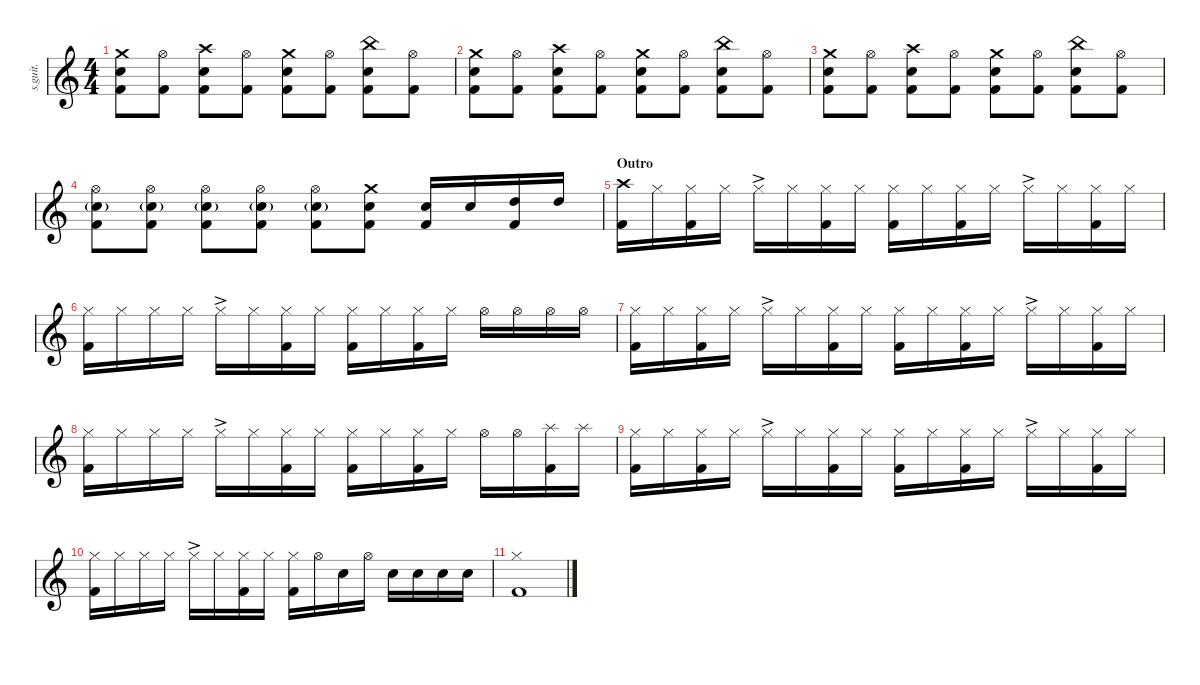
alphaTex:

\defaultSystemsLayout 4
\hideDynamics
\bracketExtendMode nobrackets
\track ("Feargal Lawler (Drums)" "s.guit.") {instrument percussion}
\staff {score}
\articulation defaults
\ts (4 4)
\tempo (82 hide)
\clef g2
\ks c
("Crash medium (hit)" "Snare (hit) 2" "Kick (hit) 2").8{lyrics (0 "") lyrics (1 "") lyrics (2 "") lyrics (3 "") lyrics (4 "") dy ff} ("Hi-Hat (open)" "Kick (hit) 2").8{lyrics (0 "") lyrics (1 "") lyrics (2 "") lyrics (3 "") lyrics (4 "")} ("Crash high (hit)" "Snare (hit) 2" "Kick (hit) 2").8{lyrics (0 "") lyrics (1 "") lyrics (2 "") lyrics (3 "") lyrics (4 "")} ("Hi-Hat (open)" "Kick (hit) 2").8{lyrics (0 "") lyrics (1 "") lyrics (2 "") lyrics (3 "") lyrics (4 "")} ("Crash medium (hit)" "Snare (hit) 2" "Kick (hit) 2").8{lyrics (0 "") lyrics (1 "") lyrics (2 "") lyrics (3 "") lyrics (4 "")} ("Hi-Hat (open)" "Kick (hit) 2").8{lyrics (0 "") lyrics (1 "") lyrics (2 "") lyrics (3 "") lyrics (4 "")} ("China (hit)" "Snare (hit) 2" "Kick (hit) 2").8{lyrics (0 "") lyrics (1 "") lyrics (2 "") lyrics (3 "") lyrics (4 "")} ("Hi-Hat (open)" "Kick (hit) 2").8{lyrics (0 "") lyrics (1 "") lyrics (2 "") lyrics (3 "") lyrics (4 "")} |
("Crash medium (hit)" "Snare (hit) 2" "Kick (hit) 2").8{lyrics (0 "") lyrics (1 "") lyrics (2 "") lyrics (3 "") lyrics (4 "")} ("Hi-Hat (open)" "Kick (hit) 2").8{lyrics (0 "") lyrics (1 "") lyrics (2 "") lyrics (3 "") lyrics (4 "")} ("Crash high (hit)" "Snare (hit) 2" "Kick (hit) 2").8{lyrics (0 "") lyrics (1 "") lyrics (2 "") lyrics (3 "") lyrics (4 "")} ("Hi-Hat (open)" "Kick (hit) 2").8{lyrics (0 "") lyrics (1 "") lyrics (2 "") lyrics (3 "") lyrics (4 "")} ("Crash medium (hit)" "Snare (hit) 2" "Kick (hit) 2").8{lyrics (0 "") lyrics (1 "") lyrics (2 "") lyrics (3 "") lyrics (4 "")} ("Hi-Hat (open)" "Kick (hit) 2").8{lyrics (0 "") lyrics (1 "") lyrics (2 "") lyrics (3 "") lyrics (4 "")} ("China (hit)" "Snare (hit) 2" "Kick (hit) 2").8{lyrics (0 "") lyrics (1 "") lyrics (2 "") lyrics (3 "") lyrics (4 "")} ("Hi-Hat (open)" "Kick (hit) 2").8{lyrics (0 "") lyrics (1 "") lyrics (2 "") lyrics (3 "") lyrics (4 "")} |
("Crash medium (hit)" "Snare (hit) 2" "Kick (hit) 2").8{lyrics (0 "") lyrics (1 "") lyrics (2 "") lyrics (3 "") lyrics (4 "")} ("Hi-Hat (open)" "Kick (hit) 2").8{lyrics (0 "") lyrics (1 "") lyrics (2 "") lyrics (3 "") lyrics (4 "")} ("Crash high (hit)" "Snare (hit) 2" "Kick (hit) 2").8{lyrics (0 "") lyrics (1 "") lyrics (2 "") lyrics (3 "") lyrics (4 "")} ("Hi-Hat (open)" "Kick (hit) 2").8{lyrics (0 "") lyrics (1 "") lyrics (2 "") lyrics (3 "") lyrics (4 "")} ("Crash medium (hit)" "Snare (hit) 2" "Kick (hit) 2").8{lyrics (0 "") lyrics (1 "") lyrics (2 "") lyrics (3 "") lyrics (4 "")} ("Hi-Hat (open)" "Kick (hit) 2").8{lyrics (0 "") lyrics (1 "") lyrics (2 "") lyrics (3 "") lyrics (4 "")} ("China (hit)" "Snare (hit) 2" "Kick (hit) 2").8{lyrics (0 "") lyrics (1 "") lyrics (2 "") lyrics (3 "") lyrics (4 "")} ("Hi-Hat (open)" "Kick (hit) 2").8{lyrics (0 "") lyrics (1 "") lyrics (2 "") lyrics (3 "") lyrics (4 "")} |
("Hi-Hat (open)" "Kick (hit) 2" "Snare (hit) 2"{g}).8{lyrics (0 "") lyrics (1 "") lyrics (2 "") lyrics (3 "") lyrics (4 "")} ("Hi-Hat (open)" "Kick (hit) 2" "Snare (hit) 2"{g}).8{lyrics (0 "") lyrics (1 "") lyrics (2 "") lyrics (3 "") lyrics (4 "")} ("Hi-Hat (open)" "Kick (hit) 2" "Snare (hit) 2"{g}).8{lyrics (0 "") lyrics (1 "") lyrics (2 "") lyrics (3 "") lyrics (4 "")} ("Hi-Hat (open)" "Kick (hit) 2" "Snare (hit) 2"{g}).8{lyrics (0 "") lyrics (1 "") lyrics (2 "") lyrics (3 "") lyrics (4 "")} ("Hi-Hat (open)" "Kick (hit) 2" "Snare (hit) 2"{g}).8{lyrics (0 "") lyrics (1 "") lyrics (2 "") lyrics (3 "") lyrics (4 "")} ("Crash medium (hit)" "Snare (hit) 2" "Kick (hit) 2").8{lyrics (0 "") lyrics (1 "") lyrics (2 "") lyrics (3 "") lyrics (4 "")} ("Snare (hit) 2" "Kick (hit) 2").16{lyrics (0 "") lyrics (1 "") lyrics (2 "") lyrics (3 "") lyrics (4 "")} "Snare (hit) 2".16{lyrics (0 "") lyrics (1 "") lyrics (2 "") lyrics (3 "") lyrics (4 "")} ("Kick (hit) 2" "High Tom (hit)").16{lyrics (0 "") lyrics (1 "") lyrics (2 "") lyrics (3 "") lyrics (4 "")} "High Tom (hit)".16{lyrics (0 "") lyrics (1 "") lyrics (2 "") lyrics (3 "") lyrics (4 "")} |
\section ("" "Outro")
("Crash high (hit)" "Kick (hit) 2").16{lyrics (0 "") lyrics (1 "") lyrics (2 "") lyrics (3 "") lyrics (4 "")} "Hi-Hat (closed)".16{lyrics (0 "") lyrics (1 "") lyrics (2 "") lyrics (3 "") lyrics (4 "")} ("Hi-Hat (closed)" "Kick (hit) 2").16{lyrics (0 "") lyrics (1 "") lyrics (2 "") lyrics (3 "") lyrics (4 "")} "Hi-Hat (closed)".16{lyrics (0 "") lyrics (1 "") lyrics (2 "") lyrics (3 "") lyrics (4 "")} "Hi-Hat (closed)"{ac}.16{lyrics (0 "") lyrics (1 "") lyrics (2 "") lyrics (3 "") lyrics (4 "")} "Hi-Hat (closed)".16{lyrics (0 "") lyrics (1 "") lyrics (2 "") lyrics (3 "") lyrics (4 "")} ("Hi-Hat (closed)" "Kick (hit) 2").16{lyrics (0 "") lyrics (1 "") lyrics (2 "") lyrics (3 "") lyrics (4 "")} "Hi-Hat (closed)".16{lyrics (0 "") lyrics (1 "") lyrics (2 "") lyrics (3 "") lyrics (4 "")} ("Hi-Hat (closed)" "Kick (hit) 2").16{lyrics (0 "") lyrics (1 "") lyrics (2 "") lyrics (3 "") lyrics (4 "")} "Hi-Hat (closed)".16{lyrics (0 "") lyrics (1 "") lyrics (2 "") lyrics (3 "") lyrics (4 "")} ("Hi-Hat (closed)" "Kick (hit) 2").16{lyrics (0 "") lyrics (1 "") lyrics (2 "") lyrics (3 "") lyrics (4 "")} "Hi-Hat (closed)".16{lyrics (0 "") lyrics (1 "") lyrics (2 "") lyrics (3 "") lyrics (4 "")} "Hi-Hat (closed)"{ac}.16{lyrics (0 "") lyrics (1 "") lyrics (2 "") lyrics (3 "") lyrics (4 "")} "Hi-Hat (closed)".16{lyrics (0 "") lyrics (1 "") lyrics (2 "") lyrics (3 "") lyrics (4 "")} ("Hi-Hat (closed)" "Kick (hit) 2").16{lyrics (0 "") lyrics (1 "") lyrics (2 "") lyrics (3 "") lyrics (4 "")} "Hi-Hat (closed)".16{lyrics (0 "") lyrics (1 "") lyrics (2 "") lyrics (3 "") lyrics (4 "")} |
("Hi-Hat (closed)" "Kick (hit) 2").16{lyrics (0 "") lyrics (1 "") lyrics (2 "") lyrics (3 "") lyrics (4 "")} "Hi-Hat (closed)".16{lyrics (0 "") lyrics (1 "") lyrics (2 "") lyrics (3 "") lyrics (4 "")} "Hi-Hat (closed)".16{lyrics (0 "") lyrics (1 "") lyrics (2 "") lyrics (3 "") lyrics (4 "")} "Hi-Hat (closed)".16{lyrics (0 "") lyrics (1 "") lyrics (2 "") lyrics (3 "") lyrics (4 "")} "Hi-Hat (closed)"{ac}.16{lyrics (0 "") lyrics (1 "") lyrics (2 "") lyrics (3 "") lyrics (4 "")} "Hi-Hat (closed)".16{lyrics (0 "") lyrics (1 "") lyrics (2 "") lyrics (3 "") lyrics (4 "")} ("Hi-Hat (closed)" "Kick (hit) 2").16{lyrics (0 "") lyrics (1 "") lyrics (2 "") lyrics (3 "") lyrics (4 "")} "Hi-Hat (closed)".16{lyrics (0 "") lyrics (1 "") lyrics (2 "") lyrics (3 "") lyrics (4 "")} ("Hi-Hat (closed)" "Kick (hit) 2").16{lyrics (0 "") lyrics (1 "") lyrics (2 "") lyrics (3 "") lyrics (4 "")} "Hi-Hat (closed)".16{lyrics (0 "") lyrics (1 "") lyrics (2 "") lyrics (3 "") lyrics (4 "")} ("Hi-Hat (closed)" "Kick (hit) 2").16{lyrics (0 "") lyrics (1 "") lyrics (2 "") lyrics (3 "") lyrics (4 "")} "Hi-Hat (closed)".16{lyrics (0 "") lyrics (1 "") lyrics (2 "") lyrics (3 "") lyrics (4 "")} "Hi-Hat (open)".16{lyrics (0 "") lyrics (1 "") lyrics (2 "") lyrics (3 "") lyrics (4 "")} "Hi-Hat (open)".16{lyrics (0 "") lyrics (1 "") lyrics (2 "") lyrics (3 "") lyrics (4 "")} "Hi-Hat (open)".16{lyrics (0 "") lyrics (1 "") lyrics (2 "") lyrics (3 "") lyrics (4 "")} "Hi-Hat (open)".16{lyrics (0 "") lyrics (1 "") lyrics (2 "") lyrics (3 "") lyrics (4 "")} |
("Hi-Hat (closed)" "Kick (hit) 2").16{lyrics (0 "") lyrics (1 "") lyrics (2 "") lyrics (3 "") lyrics (4 "")} "Hi-Hat (closed)".16{lyrics (0 "") lyrics (1 "") lyrics (2 "") lyrics (3 "") lyrics (4 "")} ("Hi-Hat (closed)" "Kick (hit) 2").16{lyrics (0 "") lyrics (1 "") lyrics (2 "") lyrics (3 "") lyrics (4 "")} "Hi-Hat (closed)".16{lyrics (0 "") lyrics (1 "") lyrics (2 "") lyrics (3 "") lyrics (4 "")} "Hi-Hat (closed)"{ac}.16{lyrics (0 "") lyrics (1 "") lyrics (2 "") lyrics (3 "") lyrics (4 "")} "Hi-Hat (closed)".16{lyrics (0 "") lyrics (1 "") lyrics (2 "") lyrics (3 "") lyrics (4 "")} ("Hi-Hat (closed)" "Kick (hit) 2").16{lyrics (0 "") lyrics (1 "") lyrics (2 "") lyrics (3 "") lyrics (4 "")} "Hi-Hat (closed)".16{lyrics (0 "") lyrics (1 "") lyrics (2 "") lyrics (3 "") lyrics (4 "")} ("Hi-Hat (closed)" "Kick (hit) 2").16{lyrics (0 "") lyrics (1 "") lyrics (2 "") lyrics (3 "") lyrics (4 "")} "Hi-Hat (closed)".16{lyrics (0 "") lyrics (1 "") lyrics (2 "") lyrics (3 "") lyrics (4 "")} ("Hi-Hat (closed)" "Kick (hit) 2").16{lyrics (0 "") lyrics (1 "") lyrics (2 "") lyrics (3 "") lyrics (4 "")} "Hi-Hat (closed)".16{lyrics (0 "") lyrics (1 "") lyrics (2 "") lyrics (3 "") lyrics (4 "")} "Hi-Hat (closed)"{ac}.16{lyrics (0 "") lyrics (1 "") lyrics (2 "") lyrics (3 "") lyrics (4 "")} "Hi-Hat (closed)".16{lyrics (0 "") lyrics (1 "") lyrics (2 "") lyrics (3 "") lyrics (4 "")} ("Hi-Hat (closed)" "Kick (hit) 2").16{lyrics (0 "") lyrics (1 "") lyrics (2 "") lyrics (3 "") lyrics (4 "")} "Hi-Hat (closed)".16{lyrics (0 "") lyrics (1 "") lyrics (2 "") lyrics (3 "") lyrics (4 "")} |
("Hi-Hat (closed)" "Kick (hit) 2").16{lyrics (0 "") lyrics (1 "") lyrics (2 "") lyrics (3 "") lyrics (4 "")} "Hi-Hat (closed)".16{lyrics (0 "") lyrics (1 "") lyrics (2 "") lyrics (3 "") lyrics (4 "")} "Hi-Hat (closed)".16{lyrics (0 "") lyrics (1 "") lyrics (2 "") lyrics (3 "") lyrics (4 "")} "Hi-Hat (closed)".16{lyrics (0 "") lyrics (1 "") lyrics (2 "") lyrics (3 "") lyrics (4 "")} "Hi-Hat (closed)"{ac}.16{lyrics (0 "") lyrics (1 "") lyrics (2 "") lyrics (3 "") lyrics (4 "")} "Hi-Hat (closed)".16{lyrics (0 "") lyrics (1 "") lyrics (2 "") lyrics (3 "") lyrics (4 "")} ("Hi-Hat (closed)" "Kick (hit) 2").16{lyrics (0 "") lyrics (1 "") lyrics (2 "") lyrics (3 "") lyrics (4 "")} "Hi-Hat (closed)".16{lyrics (0 "") lyrics (1 "") lyrics (2 "") lyrics (3 "") lyrics (4 "")} ("Hi-Hat (closed)" "Kick (hit) 2").16{lyrics (0 "") lyrics (1 "") lyrics (2 "") lyrics (3 "") lyrics (4 "")} "Hi-Hat (closed)".16{lyrics (0 "") lyrics (1 "") lyrics (2 "") lyrics (3 "") lyrics (4 "")} ("Hi-Hat (closed)" "Kick (hit) 2").16{lyrics (0 "") lyrics (1 "") lyrics (2 "") lyrics (3 "") lyrics (4 "")} "Hi-Hat (closed)".16{lyrics (0 "") lyrics (1 "") lyrics (2 "") lyrics (3 "") lyrics (4 "")} "Hi-Hat (open)".16{lyrics (0 "") lyrics (1 "") lyrics (2 "") lyrics (3 "") lyrics (4 "")} "Hi-Hat (open)".16{lyrics (0 "") lyrics (1 "") lyrics (2 "") lyrics (3 "") lyrics (4 "")} ("Splash (hit)" "Kick (hit) 2").16{lyrics (0 "") lyrics (1 "") lyrics (2 "") lyrics (3 "") lyrics (4 "")} "Splash (hit)".16{lyrics (0 "") lyrics (1 "") lyrics (2 "") lyrics (3 "") lyrics (4 "")} |
("Hi-Hat (closed)" "Kick (hit) 2").16{lyrics (0 "") lyrics (1 "") lyrics (2 "") lyrics (3 "") lyrics (4 "")} "Hi-Hat (closed)".16{lyrics (0 "") lyrics (1 "") lyrics (2 "") lyrics (3 "") lyrics (4 "")} ("Hi-Hat (closed)" "Kick (hit) 2").16{lyrics (0 "") lyrics (1 "") lyrics (2 "") lyrics (3 "") lyrics (4 "")} "Hi-Hat (closed)".16{lyrics (0 "") lyrics (1 "") lyrics (2 "") lyrics (3 "") lyrics (4 "")} "Hi-Hat (closed)"{ac}.16{lyrics (0 "") lyrics (1 "") lyrics (2 "") lyrics (3 "") lyrics (4 "")} "Hi-Hat (closed)".16{lyrics (0 "") lyrics (1 "") lyrics (2 "") lyrics (3 "") lyrics (4 "")} ("Hi-Hat (closed)" "Kick (hit) 2").16{lyrics (0 "") lyrics (1 "") lyrics (2 "") lyrics (3 "") lyrics (4 "")} "Hi-Hat (closed)".16{lyrics (0 "") lyrics (1 "") lyrics (2 "") lyrics (3 "") lyrics (4 "")} ("Hi-Hat (closed)" "Kick (hit) 2").16{lyrics (0 "") lyrics (1 "") lyrics (2 "") lyrics (3 "") lyrics (4 "")} "Hi-Hat (closed)".16{lyrics (0 "") lyrics (1 "") lyrics (2 "") lyrics (3 "") lyrics (4 "")} ("Hi-Hat (closed)" "Kick (hit) 2").16{lyrics (0 "") lyrics (1 "") lyrics (2 "") lyrics (3 "") lyrics (4 "")} "Hi-Hat (closed)".16{lyrics (0 "") lyrics (1 "") lyrics (2 "") lyrics (3 "") lyrics (4 "")} "Hi-Hat (closed)"{ac}.16{lyrics (0 "") lyrics (1 "") lyrics (2 "") lyrics (3 "") lyrics (4 "")} "Hi-Hat (closed)".16{lyrics (0 "") lyrics (1 "") lyrics (2 "") lyrics (3 "") lyrics (4 "")} ("Hi-Hat (closed)" "Kick (hit) 2").16{lyrics (0 "") lyrics (1 "") lyrics (2 "") lyrics (3 "") lyrics (4 "")} "Hi-Hat (closed)".16{lyrics (0 "") lyrics (1 "") lyrics (2 "") lyrics (3 "") lyrics (4 "")} |
("Hi-Hat (closed)" "Kick (hit) 2").16{lyrics (0 "") lyrics (1 "") lyrics (2 "") lyrics (3 "") lyrics (4 "")} "Hi-Hat (closed)".16{lyrics (0 "") lyrics (1 "") lyrics (2 "") lyrics (3 "") lyrics (4 "")} "Hi-Hat (closed)".16{lyrics (0 "") lyrics (1 "") lyrics (2 "") lyrics (3 "") lyrics (4 "")} "Hi-Hat (closed)".16{lyrics (0 "") lyrics (1 "") lyrics (2 "") lyrics (3 "") lyrics (4 "")} "Hi-Hat (closed)"{ac}.16{lyrics (0 "") lyrics (1 "") lyrics (2 "") lyrics (3 "") lyrics (4 "")} "Hi-Hat (closed)".16{lyrics (0 "") lyrics (1 "") lyrics (2 "") lyrics (3 "") lyrics (4 "")} ("Hi-Hat (closed)" "Kick (hit) 2").16{lyrics (0 "") lyrics (1 "") lyrics (2 "") lyrics (3 "") lyrics (4 "")} "Hi-Hat (closed)".16{lyrics (0 "") lyrics (1 "") lyrics (2 "") lyrics (3 "") lyrics (4 "")} ("Hi-Hat (closed)" "Kick (hit) 2").16{lyrics (0 "") lyrics (1 "") lyrics (2 "") lyrics (3 "") lyrics (4 "")} "Hi-Hat (open)".16{lyrics (0 "") lyrics (1 "") lyrics (2 "") lyrics (3 "") lyrics (4 "")} "Snare (hit) 2".16{lyrics (0 "") lyrics (1 "") lyrics (2 "") lyrics (3 "") lyrics (4 "")} "Hi-Hat (open)".16{lyrics (0 "") lyrics (1 "") lyrics (2 "") lyrics (3 "") lyrics (4 "")} "Snare (hit) 2".16{lyrics (0 "") lyrics (1 "") lyrics (2 "") lyrics (3 "") lyrics (4 "")} "Snare (hit) 2".16{lyrics (0 "") lyrics (1 "") lyrics (2 "") lyrics (3 "") lyrics (4 "")} "Snare (hit) 2".16{lyrics (0 "") lyrics (1 "") lyrics (2 "") lyrics (3 "") lyrics (4 "")} "Snare (hit) 2".16{lyrics (0 "") lyrics (1 "") lyrics (2 "") lyrics (3 "") lyrics (4 "")} |
("Hi-Hat (closed)" "Kick (hit) 2").1{lyrics (0 "") lyrics (1 "") lyrics (2 "") lyrics (3 "") lyrics (4 "")}
